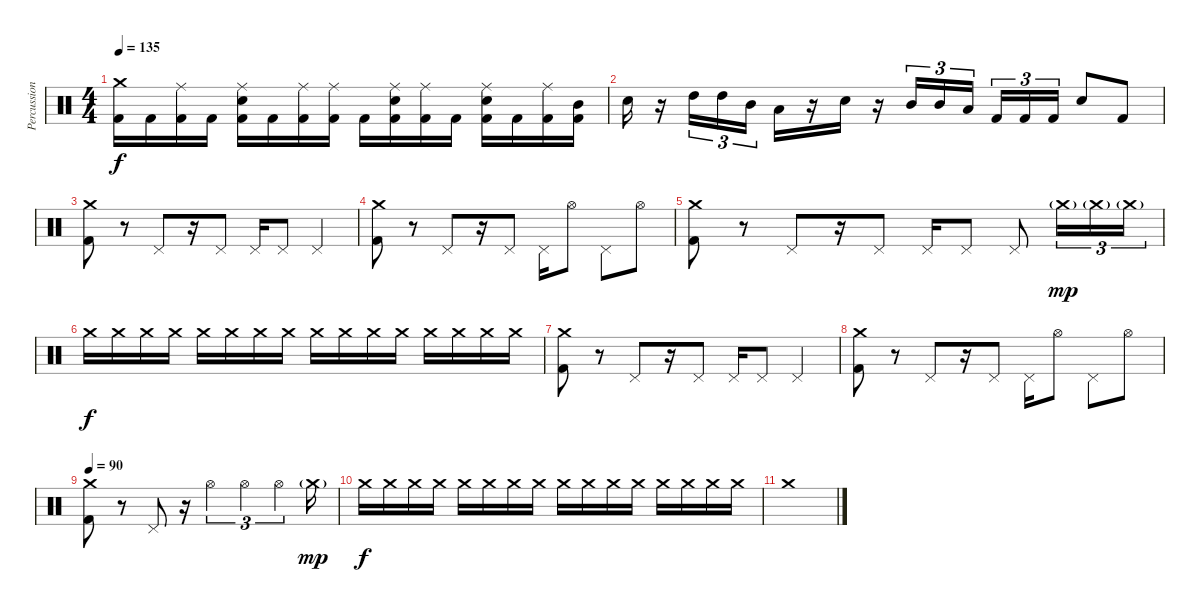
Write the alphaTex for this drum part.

\track ("Percussion" "Percussion") {instrument percussion}
\staff {score}
\articulation defaults
\ts (4 4)
\tempo 135
\clef neutral
\ks c
("Crash medium (hit)" "Kick (hit) 2").16{dy f} "Kick (hit) 2".16 ("Ride (middle)" "Kick (hit) 2").16 "Kick (hit) 2".16 ("Ride (middle)" "Electric Snare (hit)" "Kick (hit) 2").16 "Kick (hit) 2".16 ("Ride (middle)" "Kick (hit) 2").16 ("Ride (middle)" "Kick (hit) 2").16 "Kick (hit) 2".16 ("Ride (middle)" "Electric Snare (hit)" "Kick (hit) 2").16 ("Ride (middle)" "Kick (hit) 2").16 "Kick (hit) 2".16 ("Ride (middle)" "Electric Snare (hit)" "Kick (hit) 2").16 "Kick (hit) 2".16 ("Ride (middle)" "Kick (hit) 2").16 ("Mid Tom (hit)" "Kick (hit) 2").16 |
"Electric Snare (hit)".16 r.16 "High Tom (hit)".16{tu (3 2)} "High Tom (hit)".16{tu (3 2)} "Mid Tom (hit)".16{tu (3 2)} "Low Tom (hit)".16 r.16 "Electric Snare (hit)".16 r.16 "Mid Tom (hit)".16{tu (3 2)} "Mid Tom (hit)".16{tu (3 2)} "Low Tom (hit)".16{tu (3 2)} "Kick (hit) 2".16{tu (3 2)} "Kick (hit) 2".16{tu (3 2)} "Kick (hit) 2".16{tu (3 2)} "Electric Snare (hit)".8 "Kick (hit) 2".8 |
("Crash medium (hit)" "Kick (hit) 2").8 r.8 "Pedal Hi-Hat (hit)".8 r.16 "Pedal Hi-Hat (hit)".8 "Pedal Hi-Hat (hit)".16 "Pedal Hi-Hat (hit)".8 "Pedal Hi-Hat (hit)".4 |
("Crash medium (hit)" "Kick (hit) 2").8 r.8 "Pedal Hi-Hat (hit)".8 r.16 "Pedal Hi-Hat (hit)".8 "Pedal Hi-Hat (hit)".16 "Hi-Hat (open)".8 "Pedal Hi-Hat (hit)".8 "Hi-Hat (open)".8 |
("Crash medium (hit)" "Kick (hit) 2").8 r.8 "Pedal Hi-Hat (hit)".8 r.16 "Pedal Hi-Hat (hit)".8 "Pedal Hi-Hat (hit)".16 "Pedal Hi-Hat (hit)".8 "Pedal Hi-Hat (hit)".8 "Crash medium (hit)"{g}.16{tu (3 2) dy mp} "Crash medium (hit)"{g}.16{tu (3 2)} "Crash medium (hit)"{g}.16{tu (3 2)} |
"Crash medium (hit)".16{dy f volume 9} "Crash medium (hit)".16 "Crash medium (hit)".16 "Crash medium (hit)".16 "Crash medium (hit)".16 "Crash medium (hit)".16 "Crash medium (hit)".16 "Crash medium (hit)".16 "Crash medium (hit)".16{volume 16} "Crash medium (hit)".16 "Crash medium (hit)".16 "Crash medium (hit)".16 "Crash medium (hit)".16 "Crash medium (hit)".16 "Crash medium (hit)".16 "Crash medium (hit)".16 |
("Crash medium (hit)" "Kick (hit) 2").8 r.8 "Pedal Hi-Hat (hit)".8 r.16 "Pedal Hi-Hat (hit)".8 "Pedal Hi-Hat (hit)".16 "Pedal Hi-Hat (hit)".8 "Pedal Hi-Hat (hit)".4 |
("Crash medium (hit)" "Kick (hit) 2").8 r.8 "Pedal Hi-Hat (hit)".8 r.16 "Pedal Hi-Hat (hit)".8 "Pedal Hi-Hat (hit)".16 "Hi-Hat (open)".8 "Pedal Hi-Hat (hit)".8 "Hi-Hat (open)".8 |
\tempo 90
("Crash medium (hit)" "Kick (hit) 2").8 r.8 "Pedal Hi-Hat (hit)".8 r.16 "Hi-Hat (open)".4{tu (3 2)} "Hi-Hat (open)".4{tu (3 2)} "Hi-Hat (open)".4{tu (3 2)} "Crash medium (hit)"{g}.16{dy mp} |
"Crash medium (hit)".16{dy f volume 9} "Crash medium (hit)".16 "Crash medium (hit)".16 "Crash medium (hit)".16 "Crash medium (hit)".16 "Crash medium (hit)".16 "Crash medium (hit)".16 "Crash medium (hit)".16 "Crash medium (hit)".16{volume 16} "Crash medium (hit)".16 "Crash medium (hit)".16 "Crash medium (hit)".16 "Crash medium (hit)".16 "Crash medium (hit)".16 "Crash medium (hit)".16 "Crash medium (hit)".16 |
"Crash medium (hit)".1
